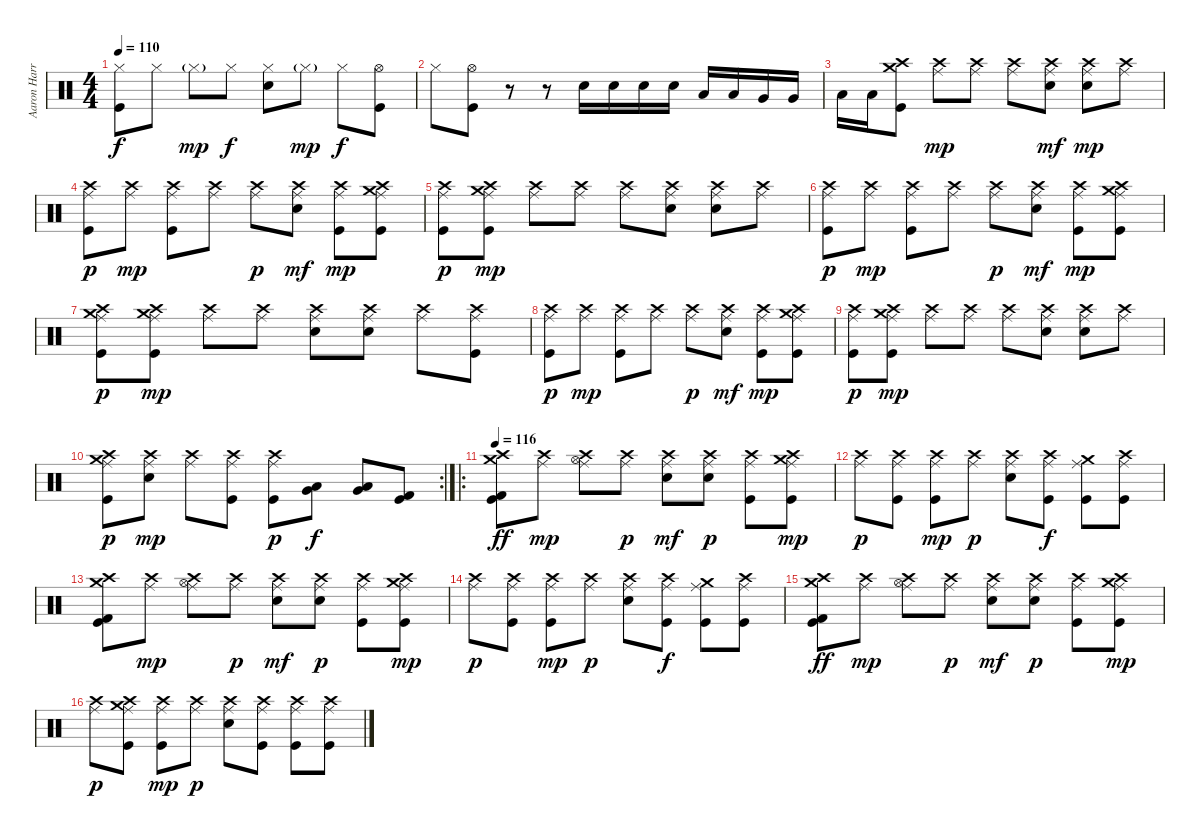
\track ("Aaron Harris" "Aaron Harr") {instrument percussion}
\staff {score}
\articulation defaults
\ts (4 4)
\tempo 110
\clef neutral
\ks c
("Hi-Hat (closed)" "Kick (hit)").8{dy f} "Hi-Hat (closed)".8 "Hi-Hat (closed)"{g}.8{dy mp} "Hi-Hat (closed)".8{dy f} ("Hi-Hat (closed)" "Electric Snare (hit)").8 "Hi-Hat (closed)"{g}.8{dy mp} "Hi-Hat (closed)".8{dy f} ("Hi-Hat (open)" "Kick (hit)").8 |
"Hi-Hat (closed)".8 ("Hi-Hat (open)" "Kick (hit)").8 r.8 r.8 "Electric Snare (hit)".16 "Electric Snare (hit)".16 "Electric Snare (hit)".16 "Electric Snare (hit)".16 "Low Tom (hit)".16 "Low Tom (hit)".16 "Very Low Tom (hit)".16 "Very Low Tom (hit)".16 |
"Low Floor Tom (hit)".16 "Low Floor Tom (hit)".16 ("Crash medium (hit)" "Crash high (hit)" "Kick (hit)").8 ("Crash high (hit)" "Ride (middle)").8{dy mp} ("Crash high (hit)" "Ride (middle)").8 ("Crash high (hit)" "Ride (middle)").8 ("Crash high (hit)" "Ride (middle)" "Electric Snare (hit)").8{dy mf} ("Crash high (hit)" "Ride (middle)" "Electric Snare (hit)").8{dy mp} ("Crash high (hit)" "Ride (middle)").8 |
("Crash high (hit)" "Ride (middle)" "Kick (hit)").8{dy p} ("Crash high (hit)" "Ride (middle)").8{dy mp} ("Crash high (hit)" "Ride (middle)" "Kick (hit)").8 ("Crash high (hit)" "Ride (middle)").8 ("Crash high (hit)" "Ride (middle)").8{dy p} ("Crash high (hit)" "Ride (middle)" "Electric Snare (hit)").8{dy mf} ("Crash high (hit)" "Ride (middle)" "Kick (hit)").8{dy mp} ("Crash medium (hit)" "Crash high (hit)" "Ride (middle)" "Kick (hit)").8 |
("Crash high (hit)" "Ride (middle)" "Kick (hit)").8{dy p} ("Crash medium (hit)" "Crash high (hit)" "Ride (middle)" "Kick (hit)").8{dy mp} ("Crash high (hit)" "Ride (middle)").8 ("Crash high (hit)" "Ride (middle)").8 ("Crash high (hit)" "Ride (middle)").8 ("Crash high (hit)" "Ride (middle)" "Electric Snare (hit)").8 ("Crash high (hit)" "Ride (middle)" "Electric Snare (hit)").8 ("Crash high (hit)" "Ride (middle)").8 |
("Crash high (hit)" "Ride (middle)" "Kick (hit)").8{dy p} ("Crash high (hit)" "Ride (middle)").8{dy mp} ("Crash high (hit)" "Ride (middle)" "Kick (hit)").8 ("Crash high (hit)" "Ride (middle)").8 ("Crash high (hit)" "Ride (middle)").8{dy p} ("Crash high (hit)" "Ride (middle)" "Electric Snare (hit)").8{dy mf} ("Crash high (hit)" "Ride (middle)" "Kick (hit)").8{dy mp} ("Crash medium (hit)" "Crash high (hit)" "Ride (middle)" "Kick (hit)").8 |
("Crash medium (hit)" "Crash high (hit)" "Ride (middle)" "Kick (hit)").8{dy p} ("Crash medium (hit)" "Crash high (hit)" "Ride (middle)" "Kick (hit)").8{dy mp} ("Crash high (hit)" "Ride (middle)").8 ("Crash high (hit)" "Ride (middle)").8 ("Crash high (hit)" "Ride (middle)" "Electric Snare (hit)").8 ("Crash high (hit)" "Ride (middle)" "Electric Snare (hit)").8 ("Crash high (hit)" "Ride (middle)").8 ("Crash high (hit)" "Ride (middle)" "Kick (hit)").8 |
("Crash high (hit)" "Ride (middle)" "Kick (hit)").8{dy p} ("Crash high (hit)" "Ride (middle)").8{dy mp} ("Crash high (hit)" "Ride (middle)" "Kick (hit)").8 ("Crash high (hit)" "Ride (middle)").8 ("Crash high (hit)" "Ride (middle)").8{dy p} ("Crash high (hit)" "Ride (middle)" "Electric Snare (hit)").8{dy mf} ("Crash high (hit)" "Ride (middle)" "Kick (hit)").8{dy mp} ("Crash medium (hit)" "Crash high (hit)" "Ride (middle)" "Kick (hit)").8 |
("Crash high (hit)" "Ride (middle)" "Kick (hit)").8{dy p} ("Crash medium (hit)" "Crash high (hit)" "Ride (middle)" "Kick (hit)").8{dy mp} ("Crash high (hit)" "Ride (middle)").8 ("Crash high (hit)" "Ride (middle)").8 ("Crash high (hit)" "Ride (middle)").8 ("Crash high (hit)" "Ride (middle)" "Electric Snare (hit)").8 ("Crash high (hit)" "Ride (middle)" "Electric Snare (hit)").8 ("Crash high (hit)" "Ride (middle)").8 |
\rc 2
("Crash medium (hit)" "Crash high (hit)" "Ride (middle)" "Kick (hit)").8{dy p} ("Crash high (hit)" "Ride (middle)" "Electric Snare (hit)").8{dy mp} ("Crash high (hit)" "Ride (middle)").8 ("Crash high (hit)" "Ride (middle)" "Kick (hit)").8 ("Crash high (hit)" "Ride (middle)" "Kick (hit)").8{dy p} ("Low Tom (hit)" "Very Low Tom (hit)").8{dy f} ("Low Tom (hit)" "Very Low Tom (hit)").8 ("Kick (hit) 2" "Kick (hit)").8 |
\ro
\tempo 116
("Crash medium (hit)" "Crash high (hit)" "Kick (hit) 2" "Kick (hit)").8{dy ff} ("Crash high (hit)" "Ride (middle)").8{dy mp} ("Crash high (hit)" "Hi-Hat (open)" "Ride (middle)").8 ("Crash high (hit)" "Ride (middle)").8{dy p} ("Crash high (hit)" "Ride (middle)" "Electric Snare (hit)").8{dy mf} ("Crash high (hit)" "Ride (middle)" "Electric Snare (hit)").8{dy p} ("Crash high (hit)" "Ride (middle)" "Kick (hit)").8 ("Crash medium (hit)" "Crash high (hit)" "Ride (middle)" "Kick (hit)").8{dy mp} |
("Crash high (hit)" "Ride (middle)").8{dy p} ("Crash high (hit)" "Ride (middle)" "Kick (hit)").8 ("Crash high (hit)" "Ride (middle)" "Kick (hit)").8{dy mp} ("Crash high (hit)" "Ride (middle)").8{dy p} ("Crash high (hit)" "Ride (middle)" "Electric Snare (hit)").8 ("Crash high (hit)" "Ride (middle)" "Kick (hit)").8{dy f} ("Crash medium (hit)" "Ride (middle)" "Kick (hit)").8 ("Crash high (hit)" "Ride (middle)" "Kick (hit)").8 |
("Crash medium (hit)" "Crash high (hit)" "Kick (hit) 2" "Kick (hit)").8 ("Crash high (hit)" "Ride (middle)").8{dy mp} ("Crash high (hit)" "Hi-Hat (open)" "Ride (middle)").8 ("Crash high (hit)" "Ride (middle)").8{dy p} ("Crash high (hit)" "Ride (middle)" "Electric Snare (hit)").8{dy mf} ("Crash high (hit)" "Ride (middle)" "Electric Snare (hit)").8{dy p} ("Crash high (hit)" "Ride (middle)" "Kick (hit)").8 ("Crash medium (hit)" "Crash high (hit)" "Ride (middle)" "Kick (hit)").8{dy mp} |
("Crash high (hit)" "Ride (middle)").8{dy p} ("Crash high (hit)" "Ride (middle)" "Kick (hit)").8 ("Crash high (hit)" "Ride (middle)" "Kick (hit)").8{dy mp} ("Crash high (hit)" "Ride (middle)").8{dy p} ("Crash high (hit)" "Ride (middle)" "Electric Snare (hit)").8 ("Crash high (hit)" "Ride (middle)" "Kick (hit)").8{dy f} ("Crash medium (hit)" "Ride (middle)" "Kick (hit)").8 ("Crash high (hit)" "Ride (middle)" "Kick (hit)").8 |
("Crash medium (hit)" "Crash high (hit)" "Kick (hit) 2" "Kick (hit)").8{dy ff} ("Crash high (hit)" "Ride (middle)").8{dy mp} ("Crash high (hit)" "Hi-Hat (open)" "Ride (middle)").8 ("Crash high (hit)" "Ride (middle)").8{dy p} ("Crash high (hit)" "Ride (middle)" "Electric Snare (hit)").8{dy mf} ("Crash high (hit)" "Ride (middle)" "Electric Snare (hit)").8{dy p} ("Crash high (hit)" "Ride (middle)" "Kick (hit)").8 ("Crash medium (hit)" "Crash high (hit)" "Ride (middle)" "Kick (hit)").8{dy mp} |
("Crash high (hit)" "Ride (middle)").8{dy p} ("Crash medium (hit)" "Crash high (hit)" "Ride (middle)" "Kick (hit)").8 ("Crash high (hit)" "Ride (middle)" "Kick (hit)").8{dy mp} ("Crash high (hit)" "Ride (middle)").8{dy p} ("Crash high (hit)" "Ride (middle)" "Electric Snare (hit)").8 ("Crash high (hit)" "Ride (middle)" "Kick (hit)").8 ("Crash high (hit)" "Ride (middle)" "Kick (hit)").8 ("Crash high (hit)" "Ride (middle)" "Kick (hit)").8
